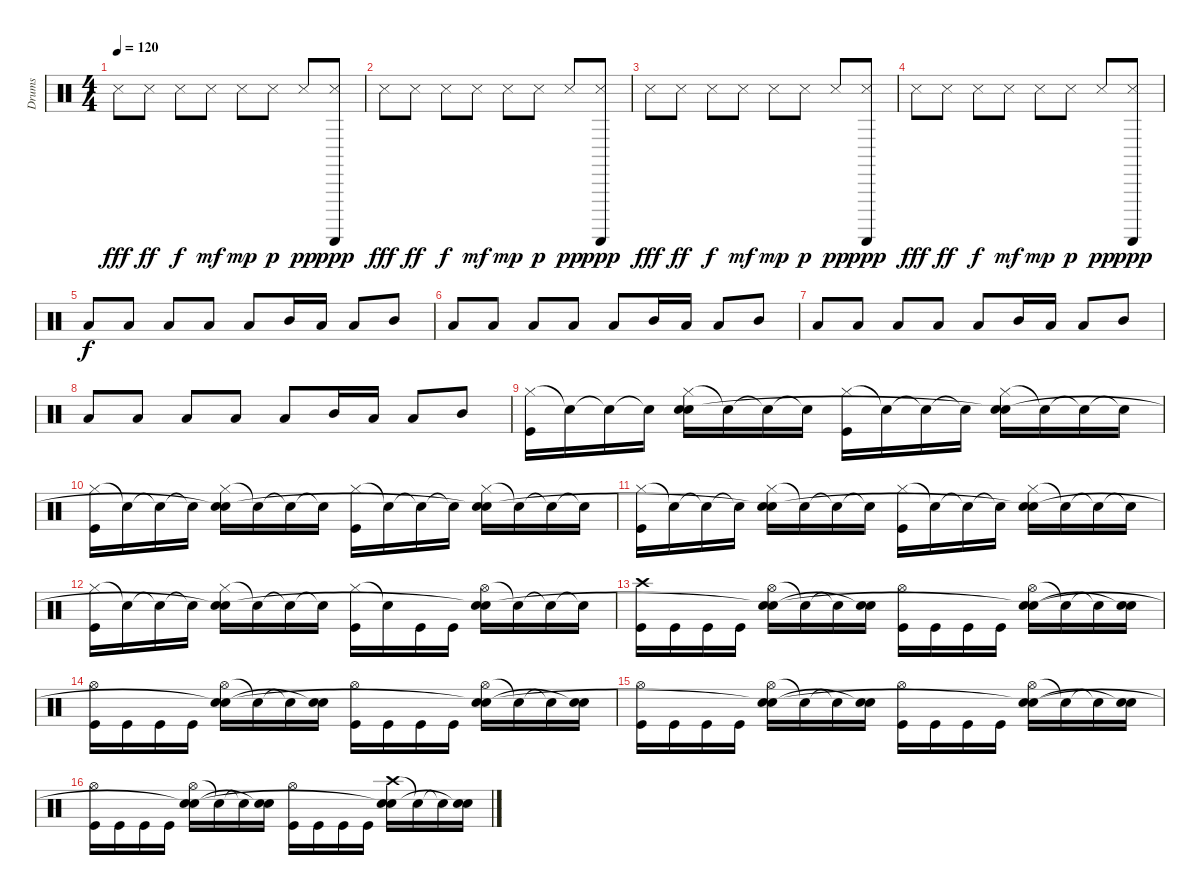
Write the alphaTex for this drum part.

\track ("Drums" "Drums") {instrument percussion}
\staff {score}
\articulation defaults
\ts (4 4)
\tempo 120
\clef neutral
\ks c "Snare (side stick) 3".8{dy fff} "Snare (side stick) 3".8{dy ff} "Snare (side stick) 3".8{dy f} "Snare (side stick) 3".8{dy mf} "Snare (side stick) 3".8{dy mp} "Snare (side stick) 3".8{dy p} "Snare (side stick) 3".8{dy pp}
("Guiro (scrap-return)" "Snare (side stick) 3").8{dy ppp} |
"Snare (side stick) 3".8{dy fff} "Snare (side stick) 3".8{dy ff} "Snare (side stick) 3".8{dy f} "Snare (side stick) 3".8{dy mf} "Snare (side stick) 3".8{dy mp} "Snare (side stick) 3".8{dy p} "Snare (side stick) 3".8{dy pp} ("Guiro (scrap-return)" "Snare (side stick) 3").8{dy ppp} |
"Snare (side stick) 3".8{dy fff} "Snare (side stick) 3".8{dy ff} "Snare (side stick) 3".8{dy f} "Snare (side stick) 3".8{dy mf} "Snare (side stick) 3".8{dy mp} "Snare (side stick) 3".8{dy p} "Snare (side stick) 3".8{dy pp} ("Guiro (scrap-return)" "Snare (side stick) 3").8{dy ppp} |
"Snare (side stick) 3".8{dy fff} "Snare (side stick) 3".8{dy ff} "Snare (side stick) 3".8{dy f} "Snare (side stick) 3".8{dy mf} "Snare (side stick) 3".8{dy mp} "Snare (side stick) 3".8{dy p} "Snare (side stick) 3".8{dy pp} ("Guiro (scrap-return)" "Snare (side stick) 3").8{dy ppp} |
"Low Tom (hit)".8{dy f} "Low Tom (hit)".8 "Low Tom (hit)".8 "Low Tom (hit)".8 "Low Tom (hit)".8 "Mid Tom (hit)".16 "Low Tom (hit)".16 "Low Tom (hit)".8 "Mid Tom (hit)".8 |
"Low Tom (hit)".8 "Low Tom (hit)".8 "Low Tom (hit)".8 "Low Tom (hit)".8 "Low Tom (hit)".8 "Mid Tom (hit)".16 "Low Tom (hit)".16 "Low Tom (hit)".8 "Mid Tom (hit)".8 |
"Low Tom (hit)".8 "Low Tom (hit)".8 "Low Tom (hit)".8 "Low Tom (hit)".8 "Low Tom (hit)".8 "Mid Tom (hit)".16 "Low Tom (hit)".16 "Low Tom (hit)".8 "Mid Tom (hit)".8 |
"Low Tom (hit)".8 "Low Tom (hit)".8 "Low Tom (hit)".8 "Low Tom (hit)".8 "Low Tom (hit)".8 "Mid Tom (hit)".16 "Low Tom (hit)".16 "Low Tom (hit)".8 "Mid Tom (hit)".8 |
("Hi-Hat (closed)" "Kick (hit)").16 "Snare (hit)"{t}.16 "Snare (hit)"{t}.16 "Snare (hit)"{t}.16 ("Hi-Hat (closed)" "Electric Snare (hit)" "Snare (hit)").16 "Snare (hit)"{t}.16 "Snare (hit)"{t}.16 "Snare (hit)"{t}.16 ("Hi-Hat (closed)" "Kick (hit)").16 "Snare (hit)"{t}.16 "Snare (hit)"{t}.16 "Snare (hit)"{t}.16 ("Hi-Hat (closed)" "Electric Snare (hit)" "Snare (hit)"{t}).16 "Snare (hit)"{t}.16 "Snare (hit)"{t}.16 "Snare (hit)"{t}.16 |
("Hi-Hat (closed)" "Kick (hit)").16 "Snare (hit)"{t}.16 "Snare (hit)"{t}.16 "Snare (hit)"{t}.16 ("Hi-Hat (closed)" "Electric Snare (hit)" "Snare (hit)"{t}).16 "Snare (hit)"{t}.16 "Snare (hit)"{t}.16 "Snare (hit)"{t}.16 ("Hi-Hat (closed)" "Kick (hit)").16 "Snare (hit)"{t}.16 "Snare (hit)"{t}.16 "Snare (hit)"{t}.16 ("Hi-Hat (closed)" "Electric Snare (hit)" "Snare (hit)"{t}).16 "Snare (hit)"{t}.16 "Snare (hit)"{t}.16 "Snare (hit)"{t}.16 |
("Hi-Hat (closed)" "Kick (hit)").16 "Snare (hit)"{t}.16 "Snare (hit)"{t}.16 "Snare (hit)"{t}.16 ("Hi-Hat (closed)" "Electric Snare (hit)" "Snare (hit)"{t}).16 "Snare (hit)"{t}.16 "Snare (hit)"{t}.16 "Snare (hit)"{t}.16 ("Hi-Hat (closed)" "Kick (hit)").16 "Snare (hit)"{t}.16 "Snare (hit)"{t}.16 "Snare (hit)"{t}.16 ("Hi-Hat (closed)" "Electric Snare (hit)" "Snare (hit)"{t}).16 "Snare (hit)"{t}.16 "Snare (hit)"{t}.16 "Snare (hit)"{t}.16 |
("Hi-Hat (closed)" "Kick (hit)").16 "Snare (hit)"{t}.16 "Snare (hit)"{t}.16 "Snare (hit)"{t}.16 ("Hi-Hat (closed)" "Electric Snare (hit)" "Snare (hit)"{t}).16 "Snare (hit)"{t}.16 "Snare (hit)"{t}.16 "Snare (hit)"{t}.16 ("Hi-Hat (closed)" "Kick (hit)").16 "Snare (hit)"{t}.16 "Kick (hit)".16 "Kick (hit)".16 ("Hi-Hat (open)" "Electric Snare (hit)" "Snare (hit)"{t}).16 "Snare (hit)"{t}.16 "Snare (hit)"{t}.16 "Snare (hit)"{t}.16 |
("Crash high (hit)" "Kick (hit)").16 "Kick (hit)".16 "Kick (hit)".16 "Kick (hit)".16 ("Hi-Hat (open)" "Electric Snare (hit)" "Snare (hit)"{t}).16 "Snare (hit)"{t}.16 "Snare (hit)"{t}.16 ("Electric Snare (hit)" "Snare (hit)"{t}).16 ("Hi-Hat (open)" "Kick (hit)").16 "Kick (hit)".16 "Kick (hit)".16 "Kick (hit)".16 ("Hi-Hat (open)" "Electric Snare (hit)" "Snare (hit)"{t}).16 "Snare (hit)"{t}.16 "Snare (hit)"{t}.16 ("Electric Snare (hit)" "Snare (hit)"{t}).16 |
("Hi-Hat (open)" "Kick (hit)").16 "Kick (hit)".16 "Kick (hit)".16 "Kick (hit)".16 ("Hi-Hat (open)" "Electric Snare (hit)" "Snare (hit)"{t}).16 "Snare (hit)"{t}.16 "Snare (hit)"{t}.16 ("Electric Snare (hit)" "Snare (hit)"{t}).16 ("Hi-Hat (open)" "Kick (hit)").16 "Kick (hit)".16 "Kick (hit)".16 "Kick (hit)".16 ("Hi-Hat (open)" "Electric Snare (hit)" "Snare (hit)"{t}).16 "Snare (hit)"{t}.16 "Snare (hit)"{t}.16 ("Electric Snare (hit)" "Snare (hit)"{t}).16 |
("Hi-Hat (open)" "Kick (hit)").16 "Kick (hit)".16 "Kick (hit)".16 "Kick (hit)".16 ("Hi-Hat (open)" "Electric Snare (hit)" "Snare (hit)"{t}).16 "Snare (hit)"{t}.16 "Snare (hit)"{t}.16 ("Electric Snare (hit)" "Snare (hit)"{t}).16 ("Hi-Hat (open)" "Kick (hit)").16 "Kick (hit)".16 "Kick (hit)".16 "Kick (hit)".16 ("Hi-Hat (open)" "Electric Snare (hit)" "Snare (hit)"{t}).16 "Snare (hit)"{t}.16 "Snare (hit)"{t}.16 ("Electric Snare (hit)" "Snare (hit)"{t}).16 |
("Hi-Hat (open)" "Kick (hit)").16 "Kick (hit)".16 "Kick (hit)".16 "Kick (hit)".16 ("Hi-Hat (open)" "Electric Snare (hit)" "Snare (hit)"{t}).16 "Snare (hit)"{t}.16 "Snare (hit)"{t}.16 ("Electric Snare (hit)" "Snare (hit)"{t}).16 ("Hi-Hat (open)" "Kick (hit)").16 "Kick (hit)".16 "Kick (hit)".16 "Kick (hit)".16 ("Crash high (hit)" "Electric Snare (hit)" "Snare (hit)"{t}).16 "Snare (hit)"{t}.16 "Snare (hit)"{t}.16 ("Electric Snare (hit)" "Snare (hit)"{t}).16
